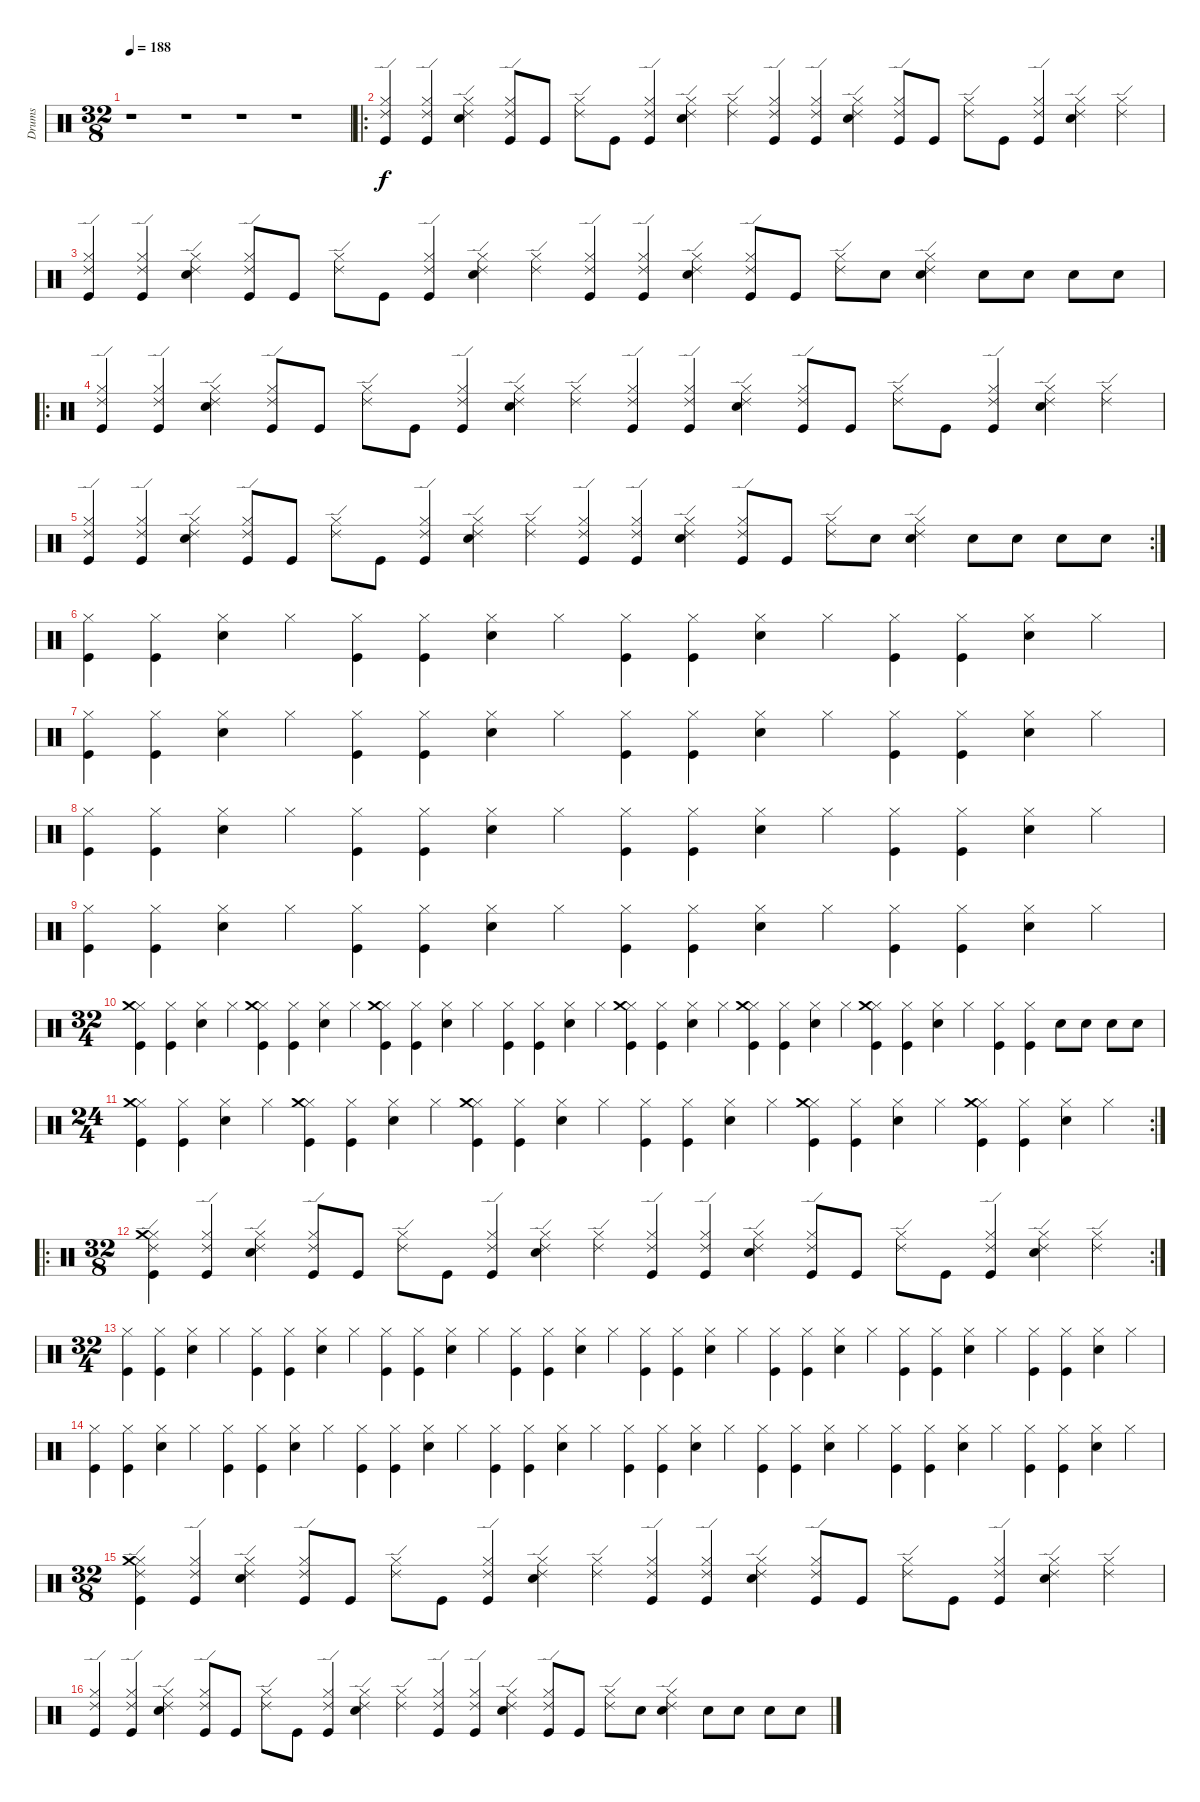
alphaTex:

\track ("Drums" "Drums") {instrument percussion}
\staff {score}
\articulation defaults
\ts (32 8)
\tempo 188
\clef neutral
\ks c
r.1{dy f} r.1 r.1 r.1 |
\ro
("Kick (hit)" "Hi-Hat (closed)" "Ride (edge) 2").4 ("Kick (hit)" "Hi-Hat (closed)" "Ride (edge) 2").4 ("Snare (hit) 2" "Hi-Hat (closed)" "Ride (edge) 2").4 ("Kick (hit)" "Hi-Hat (closed)" "Ride (edge) 2").8 "Kick (hit)".8 ("Hi-Hat (closed)" "Ride (edge) 2").8 "Kick (hit)".8 ("Kick (hit)" "Hi-Hat (closed)" "Ride (edge) 2").4 ("Snare (hit) 2" "Hi-Hat (closed)" "Ride (edge) 2").4 ("Hi-Hat (closed)" "Ride (edge) 2").4 ("Kick (hit)" "Hi-Hat (closed)" "Ride (edge) 2").4 ("Kick (hit)" "Hi-Hat (closed)" "Ride (edge) 2").4 ("Snare (hit) 2" "Hi-Hat (closed)" "Ride (edge) 2").4 ("Kick (hit)" "Hi-Hat (closed)" "Ride (edge) 2").8 "Kick (hit)".8 ("Hi-Hat (closed)" "Ride (edge) 2").8 "Kick (hit)".8 ("Kick (hit)" "Hi-Hat (closed)" "Ride (edge) 2").4 ("Snare (hit) 2" "Hi-Hat (closed)" "Ride (edge) 2").4 ("Hi-Hat (closed)" "Ride (edge) 2").4 |
("Kick (hit)" "Hi-Hat (closed)" "Ride (edge) 2").4 ("Kick (hit)" "Hi-Hat (closed)" "Ride (edge) 2").4 ("Snare (hit) 2" "Hi-Hat (closed)" "Ride (edge) 2").4 ("Kick (hit)" "Hi-Hat (closed)" "Ride (edge) 2").8 "Kick (hit)".8 ("Hi-Hat (closed)" "Ride (edge) 2").8 "Kick (hit)".8 ("Kick (hit)" "Hi-Hat (closed)" "Ride (edge) 2").4 ("Snare (hit) 2" "Hi-Hat (closed)" "Ride (edge) 2").4 ("Hi-Hat (closed)" "Ride (edge) 2").4 ("Kick (hit)" "Hi-Hat (closed)" "Ride (edge) 2").4 ("Kick (hit)" "Hi-Hat (closed)" "Ride (edge) 2").4 ("Snare (hit) 2" "Hi-Hat (closed)" "Ride (edge) 2").4 ("Kick (hit)" "Hi-Hat (closed)" "Ride (edge) 2").8 "Kick (hit)".8 ("Hi-Hat (closed)" "Ride (edge) 2").8 "Snare (hit) 2".8 ("Snare (hit) 2" "Hi-Hat (closed)" "Ride (edge) 2").4 "Snare (hit) 2".8 "Snare (hit) 2".8 "Snare (hit) 2".8 "Snare (hit) 2".8 |
\ro
("Kick (hit)" "Hi-Hat (closed)" "Ride (edge) 2").4 ("Kick (hit)" "Hi-Hat (closed)" "Ride (edge) 2").4 ("Snare (hit) 2" "Hi-Hat (closed)" "Ride (edge) 2").4 ("Kick (hit)" "Hi-Hat (closed)" "Ride (edge) 2").8 "Kick (hit)".8 ("Hi-Hat (closed)" "Ride (edge) 2").8 "Kick (hit)".8 ("Kick (hit)" "Hi-Hat (closed)" "Ride (edge) 2").4 ("Snare (hit) 2" "Hi-Hat (closed)" "Ride (edge) 2").4 ("Hi-Hat (closed)" "Ride (edge) 2").4 ("Kick (hit)" "Hi-Hat (closed)" "Ride (edge) 2").4 ("Kick (hit)" "Hi-Hat (closed)" "Ride (edge) 2").4 ("Snare (hit) 2" "Hi-Hat (closed)" "Ride (edge) 2").4 ("Kick (hit)" "Hi-Hat (closed)" "Ride (edge) 2").8 "Kick (hit)".8 ("Hi-Hat (closed)" "Ride (edge) 2").8 "Kick (hit)".8 ("Kick (hit)" "Hi-Hat (closed)" "Ride (edge) 2").4 ("Snare (hit) 2" "Hi-Hat (closed)" "Ride (edge) 2").4 ("Hi-Hat (closed)" "Ride (edge) 2").4 |
\rc 2
("Kick (hit)" "Hi-Hat (closed)" "Ride (edge) 2").4 ("Kick (hit)" "Hi-Hat (closed)" "Ride (edge) 2").4 ("Snare (hit) 2" "Hi-Hat (closed)" "Ride (edge) 2").4 ("Kick (hit)" "Hi-Hat (closed)" "Ride (edge) 2").8 "Kick (hit)".8 ("Hi-Hat (closed)" "Ride (edge) 2").8 "Kick (hit)".8 ("Kick (hit)" "Hi-Hat (closed)" "Ride (edge) 2").4 ("Snare (hit) 2" "Hi-Hat (closed)" "Ride (edge) 2").4 ("Hi-Hat (closed)" "Ride (edge) 2").4 ("Kick (hit)" "Hi-Hat (closed)" "Ride (edge) 2").4 ("Kick (hit)" "Hi-Hat (closed)" "Ride (edge) 2").4 ("Snare (hit) 2" "Hi-Hat (closed)" "Ride (edge) 2").4 ("Kick (hit)" "Hi-Hat (closed)" "Ride (edge) 2").8 "Kick (hit)".8 ("Hi-Hat (closed)" "Ride (edge) 2").8 "Snare (hit) 2".8 ("Snare (hit) 2" "Hi-Hat (closed)" "Ride (edge) 2").4 "Snare (hit) 2".8 "Snare (hit) 2".8 "Snare (hit) 2".8 "Snare (hit) 2".8 |
("Kick (hit)" "Hi-Hat (closed)").4 ("Kick (hit)" "Hi-Hat (closed)").4 ("Snare (hit) 2" "Hi-Hat (closed)").4 "Hi-Hat (closed)".4 ("Kick (hit)" "Hi-Hat (closed)").4 ("Kick (hit)" "Hi-Hat (closed)").4 ("Snare (hit) 2" "Hi-Hat (closed)").4 "Hi-Hat (closed)".4 ("Kick (hit)" "Hi-Hat (closed)").4 ("Kick (hit)" "Hi-Hat (closed)").4 ("Snare (hit) 2" "Hi-Hat (closed)").4 "Hi-Hat (closed)".4 ("Kick (hit)" "Hi-Hat (closed)").4 ("Kick (hit)" "Hi-Hat (closed)").4 ("Snare (hit) 2" "Hi-Hat (closed)").4 "Hi-Hat (closed)".4 |
("Kick (hit)" "Hi-Hat (closed)").4 ("Kick (hit)" "Hi-Hat (closed)").4 ("Snare (hit) 2" "Hi-Hat (closed)").4 "Hi-Hat (closed)".4 ("Kick (hit)" "Hi-Hat (closed)").4 ("Kick (hit)" "Hi-Hat (closed)").4 ("Snare (hit) 2" "Hi-Hat (closed)").4 "Hi-Hat (closed)".4 ("Kick (hit)" "Hi-Hat (closed)").4 ("Kick (hit)" "Hi-Hat (closed)").4 ("Snare (hit) 2" "Hi-Hat (closed)").4 "Hi-Hat (closed)".4 ("Kick (hit)" "Hi-Hat (closed)").4 ("Kick (hit)" "Hi-Hat (closed)").4 ("Snare (hit) 2" "Hi-Hat (closed)").4 "Hi-Hat (closed)".4 |
("Kick (hit)" "Hi-Hat (closed)").4 ("Kick (hit)" "Hi-Hat (closed)").4 ("Snare (hit) 2" "Hi-Hat (closed)").4 "Hi-Hat (closed)".4 ("Kick (hit)" "Hi-Hat (closed)").4 ("Kick (hit)" "Hi-Hat (closed)").4 ("Snare (hit) 2" "Hi-Hat (closed)").4 "Hi-Hat (closed)".4 ("Kick (hit)" "Hi-Hat (closed)").4 ("Kick (hit)" "Hi-Hat (closed)").4 ("Snare (hit) 2" "Hi-Hat (closed)").4 "Hi-Hat (closed)".4 ("Kick (hit)" "Hi-Hat (closed)").4 ("Kick (hit)" "Hi-Hat (closed)").4 ("Snare (hit) 2" "Hi-Hat (closed)").4 "Hi-Hat (closed)".4 |
("Kick (hit)" "Hi-Hat (closed)").4 ("Kick (hit)" "Hi-Hat (closed)").4 ("Snare (hit) 2" "Hi-Hat (closed)").4 "Hi-Hat (closed)".4 ("Kick (hit)" "Hi-Hat (closed)").4 ("Kick (hit)" "Hi-Hat (closed)").4 ("Snare (hit) 2" "Hi-Hat (closed)").4 "Hi-Hat (closed)".4 ("Kick (hit)" "Hi-Hat (closed)").4 ("Kick (hit)" "Hi-Hat (closed)").4 ("Snare (hit) 2" "Hi-Hat (closed)").4 "Hi-Hat (closed)".4 ("Kick (hit)" "Hi-Hat (closed)").4 ("Kick (hit)" "Hi-Hat (closed)").4 ("Snare (hit) 2" "Hi-Hat (closed)").4 "Hi-Hat (closed)".4 |
\ts (32 4)
("Kick (hit)" "Hi-Hat (closed)" "Crash medium (hit)").4 ("Kick (hit)" "Hi-Hat (closed)").4 ("Snare (hit) 2" "Hi-Hat (closed)").4 "Hi-Hat (closed)".4 ("Kick (hit)" "Hi-Hat (closed)" "Crash medium (hit)").4 ("Kick (hit)" "Hi-Hat (closed)").4 ("Snare (hit) 2" "Hi-Hat (closed)").4 "Hi-Hat (closed)".4 ("Kick (hit)" "Hi-Hat (closed)" "Crash medium (hit)").4 ("Kick (hit)" "Hi-Hat (closed)").4 ("Snare (hit) 2" "Hi-Hat (closed)").4 "Hi-Hat (closed)".4 ("Kick (hit)" "Hi-Hat (closed)").4 ("Kick (hit)" "Hi-Hat (closed)").4 ("Snare (hit) 2" "Hi-Hat (closed)").4 "Hi-Hat (closed)".4 ("Kick (hit)" "Hi-Hat (closed)" "Crash medium (hit)").4 ("Hi-Hat (closed)" "Kick (hit)").4 ("Hi-Hat (closed)" "Snare (hit) 2").4 "Hi-Hat (closed)".4 ("Hi-Hat (closed)" "Kick (hit)" "Crash medium (hit)").4 ("Hi-Hat (closed)" "Kick (hit)").4 ("Hi-Hat (closed)" "Snare (hit) 2").4 "Hi-Hat (closed)".4 ("Hi-Hat (closed)" "Kick (hit)" "Crash medium (hit)").4 ("Hi-Hat (closed)" "Kick (hit)").4 ("Hi-Hat (closed)" "Snare (hit) 2").4 "Hi-Hat (closed)".4 ("Hi-Hat (closed)" "Kick (hit)").4 ("Hi-Hat (closed)" "Kick (hit)").4 "Snare (hit) 2".8 "Snare (hit) 2".8 "Snare (hit) 2".8 "Snare (hit) 2".8 |
\rc 2
\ts (24 4)
("Kick (hit)" "Hi-Hat (closed)" "Crash medium (hit)").4 ("Kick (hit)" "Hi-Hat (closed)").4 ("Snare (hit) 2" "Hi-Hat (closed)").4 "Hi-Hat (closed)".4 ("Kick (hit)" "Hi-Hat (closed)" "Crash medium (hit)").4 ("Kick (hit)" "Hi-Hat (closed)").4 ("Snare (hit) 2" "Hi-Hat (closed)").4 "Hi-Hat (closed)".4 ("Kick (hit)" "Hi-Hat (closed)" "Crash medium (hit)").4 ("Kick (hit)" "Hi-Hat (closed)").4 ("Snare (hit) 2" "Hi-Hat (closed)").4 "Hi-Hat (closed)".4 ("Kick (hit)" "Hi-Hat (closed)").4 ("Kick (hit)" "Hi-Hat (closed)").4 ("Snare (hit) 2" "Hi-Hat (closed)").4 "Hi-Hat (closed)".4 ("Hi-Hat (closed)" "Kick (hit)" "Crash medium (hit)").4 ("Hi-Hat (closed)" "Kick (hit)").4 ("Hi-Hat (closed)" "Snare (hit) 2").4 "Hi-Hat (closed)".4 ("Hi-Hat (closed)" "Kick (hit)" "Crash medium (hit)").4 ("Hi-Hat (closed)" "Kick (hit)").4 ("Hi-Hat (closed)" "Snare (hit) 2").4 "Hi-Hat (closed)".4 |
\ro
\rc 2
\ts (32 8)
("Kick (hit)" "Hi-Hat (closed)" "Ride (edge) 2" "Crash medium (hit)").4 ("Kick (hit)" "Hi-Hat (closed)" "Ride (edge) 2").4 ("Snare (hit) 2" "Hi-Hat (closed)" "Ride (edge) 2").4 ("Kick (hit)" "Hi-Hat (closed)" "Ride (edge) 2").8 "Kick (hit)".8 ("Hi-Hat (closed)" "Ride (edge) 2").8 "Kick (hit)".8 ("Kick (hit)" "Hi-Hat (closed)" "Ride (edge) 2").4 ("Snare (hit) 2" "Hi-Hat (closed)" "Ride (edge) 2").4 ("Hi-Hat (closed)" "Ride (edge) 2").4 ("Kick (hit)" "Hi-Hat (closed)" "Ride (edge) 2").4 ("Kick (hit)" "Hi-Hat (closed)" "Ride (edge) 2").4 ("Snare (hit) 2" "Hi-Hat (closed)" "Ride (edge) 2").4 ("Kick (hit)" "Hi-Hat (closed)" "Ride (edge) 2").8 "Kick (hit)".8 ("Hi-Hat (closed)" "Ride (edge) 2").8 "Kick (hit)".8 ("Kick (hit)" "Hi-Hat (closed)" "Ride (edge) 2").4 ("Snare (hit) 2" "Hi-Hat (closed)" "Ride (edge) 2").4 ("Hi-Hat (closed)" "Ride (edge) 2").4 |
\ts (32 4)
("Kick (hit)" "Hi-Hat (closed)").4 ("Kick (hit)" "Hi-Hat (closed)").4 ("Snare (hit) 2" "Hi-Hat (closed)").4 "Hi-Hat (closed)".4 ("Kick (hit)" "Hi-Hat (closed)").4 ("Kick (hit)" "Hi-Hat (closed)").4 ("Snare (hit) 2" "Hi-Hat (closed)").4 "Hi-Hat (closed)".4 ("Kick (hit)" "Hi-Hat (closed)").4 ("Kick (hit)" "Hi-Hat (closed)").4 ("Snare (hit) 2" "Hi-Hat (closed)").4 "Hi-Hat (closed)".4 ("Kick (hit)" "Hi-Hat (closed)").4 ("Kick (hit)" "Hi-Hat (closed)").4 ("Snare (hit) 2" "Hi-Hat (closed)").4 "Hi-Hat (closed)".4 ("Kick (hit)" "Hi-Hat (closed)").4 ("Kick (hit)" "Hi-Hat (closed)").4 ("Snare (hit) 2" "Hi-Hat (closed)").4 "Hi-Hat (closed)".4 ("Kick (hit)" "Hi-Hat (closed)").4 ("Kick (hit)" "Hi-Hat (closed)").4 ("Snare (hit) 2" "Hi-Hat (closed)").4 "Hi-Hat (closed)".4 ("Kick (hit)" "Hi-Hat (closed)").4 ("Kick (hit)" "Hi-Hat (closed)").4 ("Snare (hit) 2" "Hi-Hat (closed)").4 "Hi-Hat (closed)".4 ("Kick (hit)" "Hi-Hat (closed)").4 ("Kick (hit)" "Hi-Hat (closed)").4 ("Snare (hit) 2" "Hi-Hat (closed)").4 "Hi-Hat (closed)".4 |
("Kick (hit)" "Hi-Hat (closed)").4 ("Kick (hit)" "Hi-Hat (closed)").4 ("Snare (hit) 2" "Hi-Hat (closed)").4 "Hi-Hat (closed)".4 ("Kick (hit)" "Hi-Hat (closed)").4 ("Kick (hit)" "Hi-Hat (closed)").4 ("Snare (hit) 2" "Hi-Hat (closed)").4 "Hi-Hat (closed)".4 ("Kick (hit)" "Hi-Hat (closed)").4 ("Kick (hit)" "Hi-Hat (closed)").4 ("Snare (hit) 2" "Hi-Hat (closed)").4 "Hi-Hat (closed)".4 ("Kick (hit)" "Hi-Hat (closed)").4 ("Kick (hit)" "Hi-Hat (closed)").4 ("Snare (hit) 2" "Hi-Hat (closed)").4 "Hi-Hat (closed)".4 ("Kick (hit)" "Hi-Hat (closed)").4 ("Kick (hit)" "Hi-Hat (closed)").4 ("Snare (hit) 2" "Hi-Hat (closed)").4 "Hi-Hat (closed)".4 ("Kick (hit)" "Hi-Hat (closed)").4 ("Kick (hit)" "Hi-Hat (closed)").4 ("Snare (hit) 2" "Hi-Hat (closed)").4 "Hi-Hat (closed)".4 ("Kick (hit)" "Hi-Hat (closed)").4 ("Kick (hit)" "Hi-Hat (closed)").4 ("Snare (hit) 2" "Hi-Hat (closed)").4 "Hi-Hat (closed)".4 ("Kick (hit)" "Hi-Hat (closed)").4 ("Kick (hit)" "Hi-Hat (closed)").4 ("Snare (hit) 2" "Hi-Hat (closed)").4 "Hi-Hat (closed)".4 |
\ts (32 8)
("Kick (hit)" "Hi-Hat (closed)" "Ride (edge) 2" "Crash medium (hit)").4 ("Kick (hit)" "Hi-Hat (closed)" "Ride (edge) 2").4 ("Snare (hit) 2" "Hi-Hat (closed)" "Ride (edge) 2").4 ("Kick (hit)" "Hi-Hat (closed)" "Ride (edge) 2").8 "Kick (hit)".8 ("Hi-Hat (closed)" "Ride (edge) 2").8 "Kick (hit)".8 ("Kick (hit)" "Hi-Hat (closed)" "Ride (edge) 2").4 ("Snare (hit) 2" "Hi-Hat (closed)" "Ride (edge) 2").4 ("Hi-Hat (closed)" "Ride (edge) 2").4 ("Kick (hit)" "Hi-Hat (closed)" "Ride (edge) 2").4 ("Kick (hit)" "Hi-Hat (closed)" "Ride (edge) 2").4 ("Snare (hit) 2" "Hi-Hat (closed)" "Ride (edge) 2").4 ("Kick (hit)" "Hi-Hat (closed)" "Ride (edge) 2").8 "Kick (hit)".8 ("Hi-Hat (closed)" "Ride (edge) 2").8 "Kick (hit)".8 ("Kick (hit)" "Hi-Hat (closed)" "Ride (edge) 2").4 ("Snare (hit) 2" "Hi-Hat (closed)" "Ride (edge) 2").4 ("Hi-Hat (closed)" "Ride (edge) 2").4 |
("Kick (hit)" "Hi-Hat (closed)" "Ride (edge) 2").4 ("Kick (hit)" "Hi-Hat (closed)" "Ride (edge) 2").4 ("Snare (hit) 2" "Hi-Hat (closed)" "Ride (edge) 2").4 ("Kick (hit)" "Hi-Hat (closed)" "Ride (edge) 2").8 "Kick (hit)".8 ("Hi-Hat (closed)" "Ride (edge) 2").8 "Kick (hit)".8 ("Kick (hit)" "Hi-Hat (closed)" "Ride (edge) 2").4 ("Snare (hit) 2" "Hi-Hat (closed)" "Ride (edge) 2").4 ("Hi-Hat (closed)" "Ride (edge) 2").4 ("Kick (hit)" "Hi-Hat (closed)" "Ride (edge) 2").4 ("Kick (hit)" "Hi-Hat (closed)" "Ride (edge) 2").4 ("Snare (hit) 2" "Hi-Hat (closed)" "Ride (edge) 2").4 ("Kick (hit)" "Hi-Hat (closed)" "Ride (edge) 2").8 "Kick (hit)".8 ("Hi-Hat (closed)" "Ride (edge) 2").8 "Snare (hit) 2".8 ("Snare (hit) 2" "Hi-Hat (closed)" "Ride (edge) 2").4 "Snare (hit) 2".8 "Snare (hit) 2".8 "Snare (hit) 2".8 "Snare (hit) 2".8
